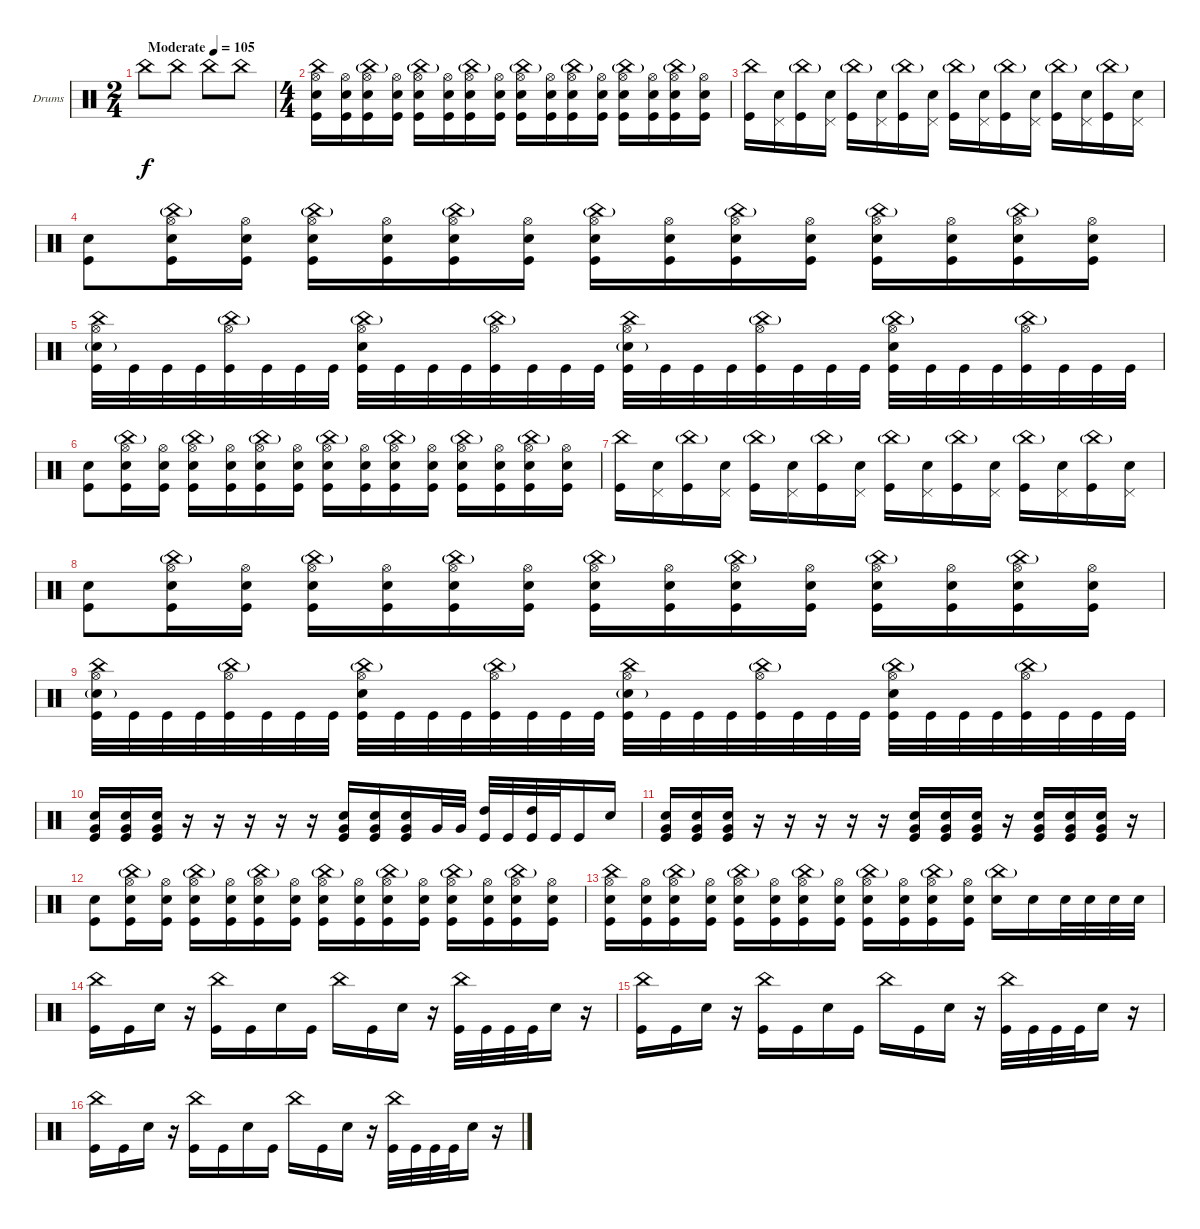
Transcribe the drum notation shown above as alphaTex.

\bracketExtendMode groupsimilarinstruments
\firstSystemTrackNameOrientation horizontal
\otherSystemsTrackNameOrientation horizontal
\track ("Drumkit" "Drums") {instrument percussion}
\staff {score}
\articulation defaults
\ts (2 4)
\beaming (8 2 2)
\tempo (105 "Moderate")
\clef neutral
\ks c "China (hit)".8{dy f} "China (hit)".8 "China (hit)".8 "China (hit)".8
|
\ts (4 4)
\beaming (8 2 2 2 2)
("China (hit)" "Hi-Hat (open)" "Snare (hit) 2" "Kick (hit)").16 ("Hi-Hat (open)" "Snare (hit) 2" "Kick (hit)").16 ("China (hit)"{g} "Hi-Hat (open)" "Snare (hit) 2" "Kick (hit)").16 ("Hi-Hat (open)" "Snare (hit) 2" "Kick (hit)").16 ("China (hit)"{g} "Hi-Hat (open)" "Snare (hit) 2" "Kick (hit)").16 ("Hi-Hat (open)" "Snare (hit) 2" "Kick (hit)").16 ("China (hit)"{g} "Hi-Hat (open)" "Snare (hit) 2" "Kick (hit)").16 ("Hi-Hat (open)" "Snare (hit) 2" "Kick (hit)").16 ("China (hit)"{g} "Hi-Hat (open)" "Snare (hit) 2" "Kick (hit)").16 ("Hi-Hat (open)" "Snare (hit) 2" "Kick (hit)").16 ("China (hit)"{g} "Hi-Hat (open)" "Snare (hit) 2" "Kick (hit)").16 ("Hi-Hat (open)" "Snare (hit) 2" "Kick (hit)").16 ("China (hit)"{g} "Hi-Hat (open)" "Snare (hit) 2" "Kick (hit)").16 ("Hi-Hat (open)" "Snare (hit) 2" "Kick (hit)").16 ("China (hit)"{g} "Hi-Hat (open)" "Snare (hit) 2" "Kick (hit)").16 ("Hi-Hat (open)" "Snare (hit) 2" "Kick (hit)").16 |
("China (hit)" "Kick (hit)").16 ("Pedal Hi-Hat (hit)" "Snare (hit) 2").16 ("China (hit)"{g} "Kick (hit)").16 ("Pedal Hi-Hat (hit)" "Snare (hit) 2").16 ("China (hit)"{g} "Kick (hit)").16 ("Pedal Hi-Hat (hit)" "Snare (hit) 2").16 ("China (hit)"{g} "Kick (hit)").16 ("Pedal Hi-Hat (hit)" "Snare (hit) 2").16 ("China (hit)"{g} "Kick (hit)").16 ("Pedal Hi-Hat (hit)" "Snare (hit) 2").16 ("China (hit)"{g} "Kick (hit)").16 ("Pedal Hi-Hat (hit)" "Snare (hit) 2").16 ("China (hit)"{g} "Kick (hit)").16 ("Pedal Hi-Hat (hit)" "Snare (hit) 2").16 ("China (hit)"{g} "Kick (hit)").16 ("Pedal Hi-Hat (hit)" "Snare (hit) 2").16 |
("Snare (hit) 2" "Kick (hit)").8 ("China (hit)"{g} "Hi-Hat (open)" "Snare (hit) 2" "Kick (hit)").16 ("Hi-Hat (open)" "Snare (hit) 2" "Kick (hit)").16 ("China (hit)"{g} "Hi-Hat (open)" "Snare (hit) 2" "Kick (hit)").16 ("Hi-Hat (open)" "Snare (hit) 2" "Kick (hit)").16 ("China (hit)"{g} "Hi-Hat (open)" "Snare (hit) 2" "Kick (hit)").16 ("Hi-Hat (open)" "Snare (hit) 2" "Kick (hit)").16 ("China (hit)"{g} "Hi-Hat (open)" "Snare (hit) 2" "Kick (hit)").16 ("Hi-Hat (open)" "Snare (hit) 2" "Kick (hit)").16 ("China (hit)"{g} "Hi-Hat (open)" "Snare (hit) 2" "Kick (hit)").16 ("Hi-Hat (open)" "Snare (hit) 2" "Kick (hit)").16 ("China (hit)"{g} "Hi-Hat (open)" "Snare (hit) 2" "Kick (hit)").16 ("Hi-Hat (open)" "Snare (hit) 2" "Kick (hit)").16 ("China (hit)"{g} "Hi-Hat (open)" "Snare (hit) 2" "Kick (hit)").16 ("Hi-Hat (open)" "Snare (hit) 2" "Kick (hit)").16 |
("China (hit)" "Hi-Hat (open)" "Snare (hit) 2"{g} "Kick (hit)").32 "Kick (hit)".32 "Kick (hit)".32 "Kick (hit)".32 ("China (hit)"{g} "Hi-Hat (open)" "Kick (hit)").32 "Kick (hit)".32 "Kick (hit)".32 "Kick (hit)".32 ("China (hit)"{g} "Hi-Hat (open)" "Snare (hit) 2" "Kick (hit)").32 "Kick (hit)".32 "Kick (hit)".32 "Kick (hit)".32 ("China (hit)"{g} "Hi-Hat (open)" "Kick (hit)").32 "Kick (hit)".32 "Kick (hit)".32 "Kick (hit)".32 ("China (hit)" "Hi-Hat (open)" "Snare (hit) 2"{g} "Kick (hit)").32 "Kick (hit)".32 "Kick (hit)".32 "Kick (hit)".32 ("China (hit)"{g} "Hi-Hat (open)" "Kick (hit)").32 "Kick (hit)".32 "Kick (hit)".32 "Kick (hit)".32 ("China (hit)"{g} "Hi-Hat (open)" "Snare (hit) 2" "Kick (hit)").32 "Kick (hit)".32 "Kick (hit)".32 "Kick (hit)".32 ("China (hit)"{g} "Hi-Hat (open)" "Kick (hit)").32 "Kick (hit)".32 "Kick (hit)".32 "Kick (hit)".32 |
("Snare (hit) 2" "Kick (hit)").8 ("China (hit)"{g} "Hi-Hat (open)" "Snare (hit) 2" "Kick (hit)").16 ("Hi-Hat (open)" "Snare (hit) 2" "Kick (hit)").16 ("China (hit)"{g} "Hi-Hat (open)" "Snare (hit) 2" "Kick (hit)").16 ("Hi-Hat (open)" "Snare (hit) 2" "Kick (hit)").16 ("China (hit)"{g} "Hi-Hat (open)" "Snare (hit) 2" "Kick (hit)").16 ("Hi-Hat (open)" "Snare (hit) 2" "Kick (hit)").16 ("China (hit)"{g} "Hi-Hat (open)" "Snare (hit) 2" "Kick (hit)").16 ("Hi-Hat (open)" "Snare (hit) 2" "Kick (hit)").16 ("China (hit)"{g} "Hi-Hat (open)" "Snare (hit) 2" "Kick (hit)").16 ("Hi-Hat (open)" "Snare (hit) 2" "Kick (hit)").16 ("China (hit)"{g} "Hi-Hat (open)" "Snare (hit) 2" "Kick (hit)").16 ("Hi-Hat (open)" "Snare (hit) 2" "Kick (hit)").16 ("China (hit)"{g} "Hi-Hat (open)" "Snare (hit) 2" "Kick (hit)").16 ("Hi-Hat (open)" "Snare (hit) 2" "Kick (hit)").16 |
("China (hit)" "Kick (hit)").16 ("Pedal Hi-Hat (hit)" "Snare (hit) 2").16 ("China (hit)"{g} "Kick (hit)").16 ("Pedal Hi-Hat (hit)" "Snare (hit) 2").16 ("China (hit)"{g} "Kick (hit)").16 ("Pedal Hi-Hat (hit)" "Snare (hit) 2").16 ("China (hit)"{g} "Kick (hit)").16 ("Pedal Hi-Hat (hit)" "Snare (hit) 2").16 ("China (hit)"{g} "Kick (hit)").16 ("Pedal Hi-Hat (hit)" "Snare (hit) 2").16 ("China (hit)"{g} "Kick (hit)").16 ("Pedal Hi-Hat (hit)" "Snare (hit) 2").16 ("China (hit)"{g} "Kick (hit)").16 ("Pedal Hi-Hat (hit)" "Snare (hit) 2").16 ("China (hit)"{g} "Kick (hit)").16 ("Pedal Hi-Hat (hit)" "Snare (hit) 2").16 |
("Snare (hit) 2" "Kick (hit)").8 ("China (hit)"{g} "Hi-Hat (open)" "Snare (hit) 2" "Kick (hit)").16 ("Hi-Hat (open)" "Snare (hit) 2" "Kick (hit)").16 ("China (hit)"{g} "Hi-Hat (open)" "Snare (hit) 2" "Kick (hit)").16 ("Hi-Hat (open)" "Snare (hit) 2" "Kick (hit)").16 ("China (hit)"{g} "Hi-Hat (open)" "Snare (hit) 2" "Kick (hit)").16 ("Hi-Hat (open)" "Snare (hit) 2" "Kick (hit)").16 ("China (hit)"{g} "Hi-Hat (open)" "Snare (hit) 2" "Kick (hit)").16 ("Hi-Hat (open)" "Snare (hit) 2" "Kick (hit)").16 ("China (hit)"{g} "Hi-Hat (open)" "Snare (hit) 2" "Kick (hit)").16 ("Hi-Hat (open)" "Snare (hit) 2" "Kick (hit)").16 ("China (hit)"{g} "Hi-Hat (open)" "Snare (hit) 2" "Kick (hit)").16 ("Hi-Hat (open)" "Snare (hit) 2" "Kick (hit)").16 ("China (hit)"{g} "Hi-Hat (open)" "Snare (hit) 2" "Kick (hit)").16 ("Hi-Hat (open)" "Snare (hit) 2" "Kick (hit)").16 |
("China (hit)" "Hi-Hat (open)" "Snare (hit) 2"{g} "Kick (hit)").32 "Kick (hit)".32 "Kick (hit)".32 "Kick (hit)".32 ("China (hit)"{g} "Hi-Hat (open)" "Kick (hit)").32 "Kick (hit)".32 "Kick (hit)".32 "Kick (hit)".32 ("China (hit)"{g} "Hi-Hat (open)" "Snare (hit) 2" "Kick (hit)").32 "Kick (hit)".32 "Kick (hit)".32 "Kick (hit)".32 ("China (hit)"{g} "Hi-Hat (open)" "Kick (hit)").32 "Kick (hit)".32 "Kick (hit)".32 "Kick (hit)".32 ("China (hit)" "Hi-Hat (open)" "Snare (hit) 2"{g} "Kick (hit)").32 "Kick (hit)".32 "Kick (hit)".32 "Kick (hit)".32 ("China (hit)"{g} "Hi-Hat (open)" "Kick (hit)").32 "Kick (hit)".32 "Kick (hit)".32 "Kick (hit)".32 ("China (hit)"{g} "Hi-Hat (open)" "Snare (hit) 2" "Kick (hit)").32 "Kick (hit)".32 "Kick (hit)".32 "Kick (hit)".32 ("China (hit)"{g} "Hi-Hat (open)" "Kick (hit)").32 "Kick (hit)".32 "Kick (hit)".32 "Kick (hit)".32 |
("Very Low Tom (hit)" "Snare (hit) 2" "Kick (hit)").16 ("Very Low Tom (hit)" "Snare (hit) 2" "Kick (hit)").16 ("Very Low Tom (hit)" "Snare (hit) 2" "Kick (hit)").16 r.16 r.16 r.16 r.16 r.16 ("Very Low Tom (hit)" "Snare (hit) 2" "Kick (hit)").16 ("Very Low Tom (hit)" "Snare (hit) 2" "Kick (hit)").16 ("Very Low Tom (hit)" "Snare (hit) 2" "Kick (hit)").16 "Very Low Tom (hit)".32 "Very Low Tom (hit)".32 ("High Tom (hit)" "Kick (hit)").32 "Kick (hit)".32 ("High Tom (hit)" "Kick (hit)").32 "Kick (hit)".32 "Kick (hit)".16 "Snare (hit) 2".16 |
("Very Low Tom (hit)" "Snare (hit) 2" "Kick (hit)").16 ("Very Low Tom (hit)" "Snare (hit) 2" "Kick (hit)").16 ("Very Low Tom (hit)" "Snare (hit) 2" "Kick (hit)").16 r.16 r.16 r.16 r.16 r.16 ("Very Low Tom (hit)" "Snare (hit) 2" "Kick (hit)").16 ("Very Low Tom (hit)" "Snare (hit) 2" "Kick (hit)").16 ("Very Low Tom (hit)" "Snare (hit) 2" "Kick (hit)").16 r.16 ("Very Low Tom (hit)" "Snare (hit) 2" "Kick (hit)").16 ("Very Low Tom (hit)" "Snare (hit) 2" "Kick (hit)").16 ("Very Low Tom (hit)" "Snare (hit) 2" "Kick (hit)").16 r.16 |
("Snare (hit) 2" "Kick (hit)").8 ("China (hit)"{g} "Hi-Hat (open)" "Snare (hit) 2" "Kick (hit)").16 ("Hi-Hat (open)" "Snare (hit) 2" "Kick (hit)").16 ("China (hit)"{g} "Hi-Hat (open)" "Snare (hit) 2" "Kick (hit)").16 ("Hi-Hat (open)" "Snare (hit) 2" "Kick (hit)").16 ("China (hit)"{g} "Hi-Hat (open)" "Snare (hit) 2" "Kick (hit)").16 ("Hi-Hat (open)" "Snare (hit) 2" "Kick (hit)").16 ("China (hit)"{g} "Hi-Hat (open)" "Snare (hit) 2" "Kick (hit)").16 ("Hi-Hat (open)" "Snare (hit) 2" "Kick (hit)").16 ("China (hit)"{g} "Hi-Hat (open)" "Snare (hit) 2" "Kick (hit)").16 ("Hi-Hat (open)" "Snare (hit) 2" "Kick (hit)").16 ("China (hit)"{g} "Hi-Hat (open)" "Snare (hit) 2" "Kick (hit)").16 ("Hi-Hat (open)" "Snare (hit) 2" "Kick (hit)").16 ("China (hit)"{g} "Hi-Hat (open)" "Snare (hit) 2" "Kick (hit)").16 ("Hi-Hat (open)" "Snare (hit) 2" "Kick (hit)").16 |
("China (hit)" "Hi-Hat (open)" "Snare (hit) 2" "Kick (hit)").16 ("Hi-Hat (open)" "Snare (hit) 2" "Kick (hit)").16 ("China (hit)"{g} "Hi-Hat (open)" "Snare (hit) 2" "Kick (hit)").16 ("Hi-Hat (open)" "Snare (hit) 2" "Kick (hit)").16 ("China (hit)"{g} "Hi-Hat (open)" "Snare (hit) 2" "Kick (hit)").16 ("Hi-Hat (open)" "Snare (hit) 2" "Kick (hit)").16 ("China (hit)"{g} "Hi-Hat (open)" "Snare (hit) 2" "Kick (hit)").16 ("Hi-Hat (open)" "Snare (hit) 2" "Kick (hit)").16 ("China (hit)"{g} "Hi-Hat (open)" "Snare (hit) 2" "Kick (hit)").16 ("Hi-Hat (open)" "Snare (hit) 2" "Kick (hit)").16 ("China (hit)"{g} "Hi-Hat (open)" "Snare (hit) 2" "Kick (hit)").16 ("Hi-Hat (open)" "Snare (hit) 2" "Kick (hit)").16 ("China (hit)"{g} "Snare (hit) 2").16 "Snare (hit) 2".16 "Snare (hit) 2".32 "Snare (hit) 2".32 "Snare (hit) 2".32 "Snare (hit) 2".32 |
("China (hit)" "Kick (hit)").16 "Kick (hit)".16 "Snare (hit) 2".16 r.16 ("China (hit)" "Kick (hit)").16 "Kick (hit)".16 "Snare (hit) 2".16 "Kick (hit)".16 "China (hit)".16 "Kick (hit)".16 "Snare (hit) 2".16 r.16 ("China (hit)" "Kick (hit)").32 "Kick (hit)".32 "Kick (hit)".32 "Kick (hit)".32 "Snare (hit) 2".16 r.16 |
("China (hit)" "Kick (hit)").16 "Kick (hit)".16 "Snare (hit) 2".16 r.16 ("China (hit)" "Kick (hit)").16 "Kick (hit)".16 "Snare (hit) 2".16 "Kick (hit)".16 "China (hit)".16 "Kick (hit)".16 "Snare (hit) 2".16 r.16 ("China (hit)" "Kick (hit)").32 "Kick (hit)".32 "Kick (hit)".32 "Kick (hit)".32 "Snare (hit) 2".16 r.16 |
("China (hit)" "Kick (hit)").16 "Kick (hit)".16 "Snare (hit) 2".16 r.16 ("China (hit)" "Kick (hit)").16 "Kick (hit)".16 "Snare (hit) 2".16 "Kick (hit)".16 "China (hit)".16 "Kick (hit)".16 "Snare (hit) 2".16 r.16 ("China (hit)" "Kick (hit)").32 "Kick (hit)".32 "Kick (hit)".32 "Kick (hit)".32 "Snare (hit) 2".16 r.16
